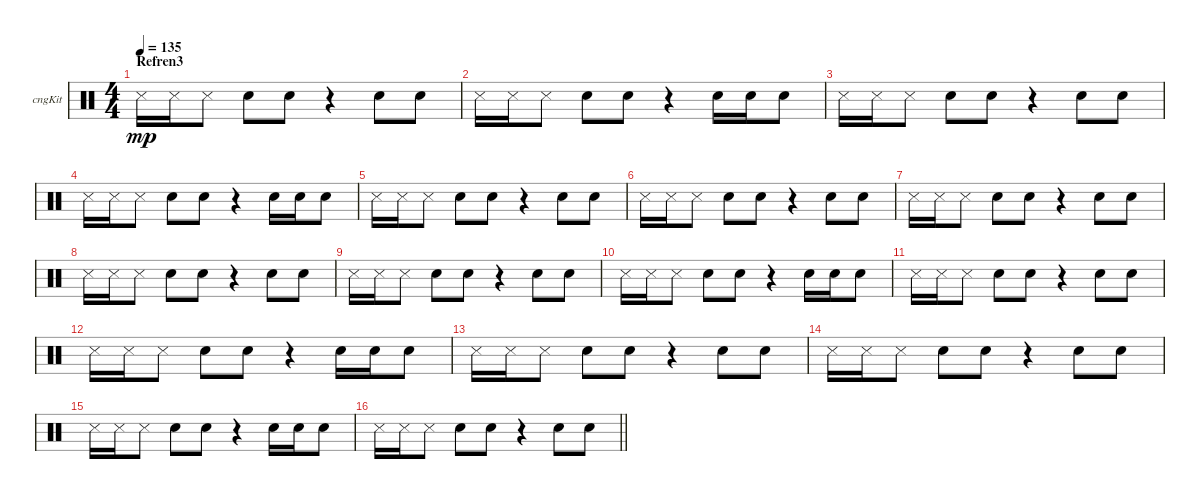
\bracketExtendMode groupsimilarinstruments
\firstSystemTrackNameOrientation horizontal
\otherSystemsTrackNameOrientation horizontal
\track ("Congas" "cngKit") {instrument percussion}
\staff {score}
\articulation defaults
\ts (4 4)
\section ("" "Refren3")
\tempo 135
\clef neutral
\ks c "Snare (side stick) 3".16{dy mp} "Snare (side stick) 3".16 "Snare (side stick) 3".8 "Snare (hit) 2".8 "Snare (hit) 2".8
r.4 "Snare (hit) 2".8 "Snare (hit) 2".8 |
"Snare (side stick) 3".16 "Snare (side stick) 3".16 "Snare (side stick) 3".8 "Snare (hit) 2".8 "Snare (hit) 2".8 r.4 "Snare (hit) 2".16 "Snare (hit) 2".16 "Snare (hit) 2".8 |
"Snare (side stick) 3".16 "Snare (side stick) 3".16 "Snare (side stick) 3".8 "Snare (hit) 2".8 "Snare (hit) 2".8 r.4 "Snare (hit) 2".8 "Snare (hit) 2".8 |
"Snare (side stick) 3".16 "Snare (side stick) 3".16 "Snare (side stick) 3".8 "Snare (hit) 2".8 "Snare (hit) 2".8 r.4 "Snare (hit) 2".16 "Snare (hit) 2".16 "Snare (hit) 2".8 |
"Snare (side stick) 3".16 "Snare (side stick) 3".16 "Snare (side stick) 3".8 "Snare (hit) 2".8 "Snare (hit) 2".8 r.4 "Snare (hit) 2".8 "Snare (hit) 2".8 |
"Snare (side stick) 3".16 "Snare (side stick) 3".16 "Snare (side stick) 3".8 "Snare (hit) 2".8 "Snare (hit) 2".8 r.4 "Snare (hit) 2".8 "Snare (hit) 2".8 |
"Snare (side stick) 3".16 "Snare (side stick) 3".16 "Snare (side stick) 3".8 "Snare (hit) 2".8 "Snare (hit) 2".8 r.4 "Snare (hit) 2".8 "Snare (hit) 2".8 |
"Snare (side stick) 3".16 "Snare (side stick) 3".16 "Snare (side stick) 3".8 "Snare (hit) 2".8 "Snare (hit) 2".8 r.4 "Snare (hit) 2".8 "Snare (hit) 2".8 |
"Snare (side stick) 3".16 "Snare (side stick) 3".16 "Snare (side stick) 3".8 "Snare (hit) 2".8 "Snare (hit) 2".8 r.4 "Snare (hit) 2".8 "Snare (hit) 2".8 |
"Snare (side stick) 3".16 "Snare (side stick) 3".16 "Snare (side stick) 3".8 "Snare (hit) 2".8 "Snare (hit) 2".8 r.4 "Snare (hit) 2".16 "Snare (hit) 2".16 "Snare (hit) 2".8 |
"Snare (side stick) 3".16 "Snare (side stick) 3".16 "Snare (side stick) 3".8 "Snare (hit) 2".8 "Snare (hit) 2".8 r.4 "Snare (hit) 2".8 "Snare (hit) 2".8 |
"Snare (side stick) 3".16 "Snare (side stick) 3".16 "Snare (side stick) 3".8 "Snare (hit) 2".8 "Snare (hit) 2".8 r.4 "Snare (hit) 2".16 "Snare (hit) 2".16 "Snare (hit) 2".8 |
"Snare (side stick) 3".16 "Snare (side stick) 3".16 "Snare (side stick) 3".8 "Snare (hit) 2".8 "Snare (hit) 2".8 r.4 "Snare (hit) 2".8 "Snare (hit) 2".8 |
"Snare (side stick) 3".16 "Snare (side stick) 3".16 "Snare (side stick) 3".8 "Snare (hit) 2".8 "Snare (hit) 2".8 r.4 "Snare (hit) 2".8 "Snare (hit) 2".8 |
"Snare (side stick) 3".16 "Snare (side stick) 3".16 "Snare (side stick) 3".8 "Snare (hit) 2".8 "Snare (hit) 2".8 r.4 "Snare (hit) 2".16 "Snare (hit) 2".16 "Snare (hit) 2".8 |
\barLineRight lightlight "Snare (side stick) 3".16 "Snare (side stick) 3".16 "Snare (side stick) 3".8 "Snare (hit) 2".8 "Snare (hit) 2".8
r.4 "Snare (hit) 2".8 "Snare (hit) 2".8
